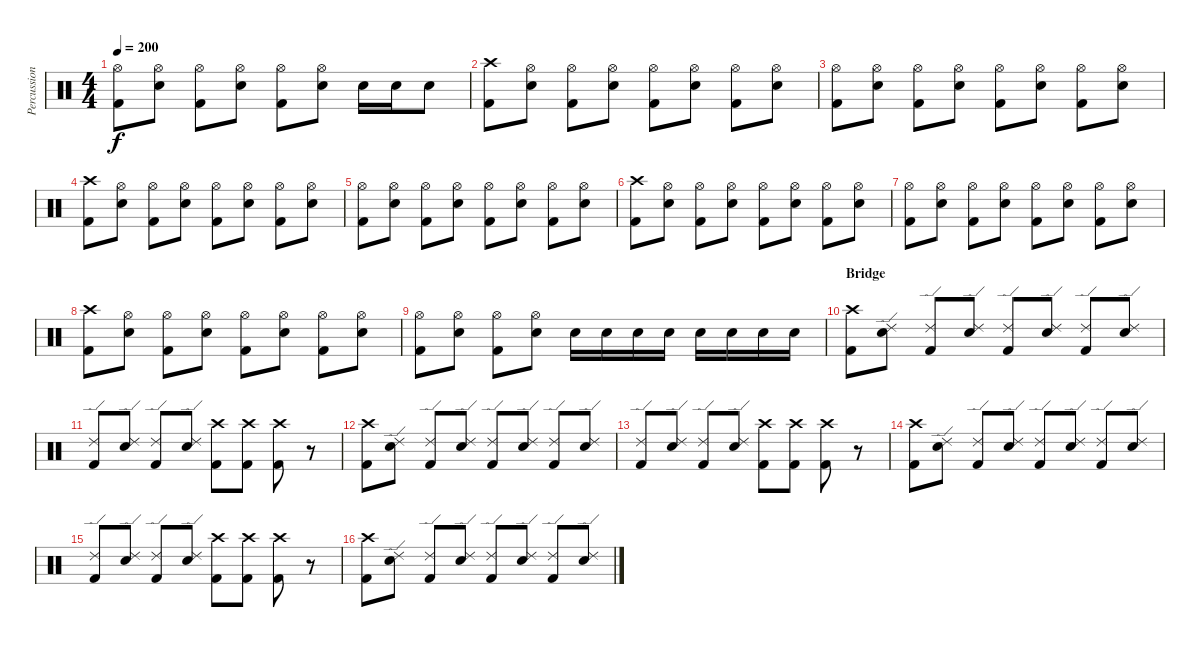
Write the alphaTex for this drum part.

\track ("Percussion" "Percussion") {instrument percussion}
\staff {score}
\articulation defaults
\ts (4 4)
\tempo 200
\clef neutral
\ks c
("Hi-Hat (open)" "Kick (hit) 2").8{dy f} ("Hi-Hat (open)" "Snare (hit) 2").8 ("Hi-Hat (open)" "Kick (hit) 2").8 ("Hi-Hat (open)" "Snare (hit) 2").8 ("Hi-Hat (open)" "Kick (hit) 2").8 ("Hi-Hat (open)" "Snare (hit) 2").8 "Snare (hit) 2".16 "Snare (hit) 2".16 "Snare (hit) 2".8 |
("Crash high (hit)" "Kick (hit) 2").8 ("Hi-Hat (open)" "Snare (hit) 2").8 ("Hi-Hat (open)" "Kick (hit) 2").8 ("Hi-Hat (open)" "Snare (hit) 2").8 ("Hi-Hat (open)" "Kick (hit) 2").8 ("Hi-Hat (open)" "Snare (hit) 2").8 ("Hi-Hat (open)" "Kick (hit) 2").8 ("Hi-Hat (open)" "Snare (hit) 2").8 |
("Hi-Hat (open)" "Kick (hit) 2").8 ("Hi-Hat (open)" "Snare (hit) 2").8 ("Hi-Hat (open)" "Kick (hit) 2").8 ("Hi-Hat (open)" "Snare (hit) 2").8 ("Hi-Hat (open)" "Kick (hit) 2").8 ("Hi-Hat (open)" "Snare (hit) 2").8 ("Hi-Hat (open)" "Kick (hit) 2").8 ("Hi-Hat (open)" "Snare (hit) 2").8 |
("Crash high (hit)" "Kick (hit) 2").8 ("Hi-Hat (open)" "Snare (hit) 2").8 ("Hi-Hat (open)" "Kick (hit) 2").8 ("Hi-Hat (open)" "Snare (hit) 2").8 ("Hi-Hat (open)" "Kick (hit) 2").8 ("Hi-Hat (open)" "Snare (hit) 2").8 ("Hi-Hat (open)" "Kick (hit) 2").8 ("Hi-Hat (open)" "Snare (hit) 2").8 |
("Hi-Hat (open)" "Kick (hit) 2").8 ("Hi-Hat (open)" "Snare (hit) 2").8 ("Hi-Hat (open)" "Kick (hit) 2").8 ("Hi-Hat (open)" "Snare (hit) 2").8 ("Hi-Hat (open)" "Kick (hit) 2").8 ("Hi-Hat (open)" "Snare (hit) 2").8 ("Hi-Hat (open)" "Kick (hit) 2").8 ("Hi-Hat (open)" "Snare (hit) 2").8 |
("Crash high (hit)" "Kick (hit) 2").8 ("Hi-Hat (open)" "Snare (hit) 2").8 ("Hi-Hat (open)" "Kick (hit) 2").8 ("Hi-Hat (open)" "Snare (hit) 2").8 ("Hi-Hat (open)" "Kick (hit) 2").8 ("Hi-Hat (open)" "Snare (hit) 2").8 ("Hi-Hat (open)" "Kick (hit) 2").8 ("Hi-Hat (open)" "Snare (hit) 2").8 |
("Hi-Hat (open)" "Kick (hit) 2").8 ("Hi-Hat (open)" "Snare (hit) 2").8 ("Hi-Hat (open)" "Kick (hit) 2").8 ("Hi-Hat (open)" "Snare (hit) 2").8 ("Hi-Hat (open)" "Kick (hit) 2").8 ("Hi-Hat (open)" "Snare (hit) 2").8 ("Hi-Hat (open)" "Kick (hit) 2").8 ("Hi-Hat (open)" "Snare (hit) 2").8 |
("Crash high (hit)" "Kick (hit) 2").8 ("Hi-Hat (open)" "Snare (hit) 2").8 ("Hi-Hat (open)" "Kick (hit) 2").8 ("Hi-Hat (open)" "Snare (hit) 2").8 ("Hi-Hat (open)" "Kick (hit) 2").8 ("Hi-Hat (open)" "Snare (hit) 2").8 ("Hi-Hat (open)" "Kick (hit) 2").8 ("Hi-Hat (open)" "Snare (hit) 2").8 |
("Hi-Hat (open)" "Kick (hit) 2").8 ("Hi-Hat (open)" "Snare (hit) 2").8 ("Hi-Hat (open)" "Kick (hit) 2").8 ("Hi-Hat (open)" "Snare (hit) 2").8 "Snare (hit) 2".16 "Snare (hit) 2".16 "Snare (hit) 2".16 "Snare (hit) 2".16 "Snare (hit) 2".16 "Snare (hit) 2".16 "Snare (hit) 2".16 "Snare (hit) 2".16 |
\section ("" "Bridge")
("Crash high (hit)" "Kick (hit) 2").8 ("Ride (edge) 2" "Snare (hit) 2").8 ("Ride (edge) 2" "Kick (hit) 2").8 ("Ride (edge) 2" "Snare (hit) 2").8 ("Ride (edge) 2" "Kick (hit) 2").8 ("Ride (edge) 2" "Snare (hit) 2").8 ("Ride (edge) 2" "Kick (hit) 2").8 ("Ride (edge) 2" "Snare (hit) 2").8 |
("Ride (edge) 2" "Kick (hit) 2").8 ("Ride (edge) 2" "Snare (hit) 2").8 ("Ride (edge) 2" "Kick (hit) 2").8 ("Ride (edge) 2" "Snare (hit) 2").8 ("Crash high (hit)" "Kick (hit) 2").8 ("Crash high (hit)" "Kick (hit) 2").8 ("Crash high (hit)" "Kick (hit) 2").8 r.8 |
("Crash high (hit)" "Kick (hit) 2").8 ("Ride (edge) 2" "Snare (hit) 2").8 ("Ride (edge) 2" "Kick (hit) 2").8 ("Ride (edge) 2" "Snare (hit) 2").8 ("Ride (edge) 2" "Kick (hit) 2").8 ("Ride (edge) 2" "Snare (hit) 2").8 ("Ride (edge) 2" "Kick (hit) 2").8 ("Ride (edge) 2" "Snare (hit) 2").8 |
("Ride (edge) 2" "Kick (hit) 2").8 ("Ride (edge) 2" "Snare (hit) 2").8 ("Ride (edge) 2" "Kick (hit) 2").8 ("Ride (edge) 2" "Snare (hit) 2").8 ("Crash high (hit)" "Kick (hit) 2").8 ("Crash high (hit)" "Kick (hit) 2").8 ("Crash high (hit)" "Kick (hit) 2").8 r.8 |
("Crash high (hit)" "Kick (hit) 2").8 ("Ride (edge) 2" "Snare (hit) 2").8 ("Ride (edge) 2" "Kick (hit) 2").8 ("Ride (edge) 2" "Snare (hit) 2").8 ("Ride (edge) 2" "Kick (hit) 2").8 ("Ride (edge) 2" "Snare (hit) 2").8 ("Ride (edge) 2" "Kick (hit) 2").8 ("Ride (edge) 2" "Snare (hit) 2").8 |
("Ride (edge) 2" "Kick (hit) 2").8 ("Ride (edge) 2" "Snare (hit) 2").8 ("Ride (edge) 2" "Kick (hit) 2").8 ("Ride (edge) 2" "Snare (hit) 2").8 ("Crash high (hit)" "Kick (hit) 2").8 ("Crash high (hit)" "Kick (hit) 2").8 ("Crash high (hit)" "Kick (hit) 2").8 r.8 |
("Crash high (hit)" "Kick (hit) 2").8 ("Ride (edge) 2" "Snare (hit) 2").8 ("Ride (edge) 2" "Kick (hit) 2").8 ("Ride (edge) 2" "Snare (hit) 2").8 ("Ride (edge) 2" "Kick (hit) 2").8 ("Ride (edge) 2" "Snare (hit) 2").8 ("Ride (edge) 2" "Kick (hit) 2").8 ("Ride (edge) 2" "Snare (hit) 2").8
